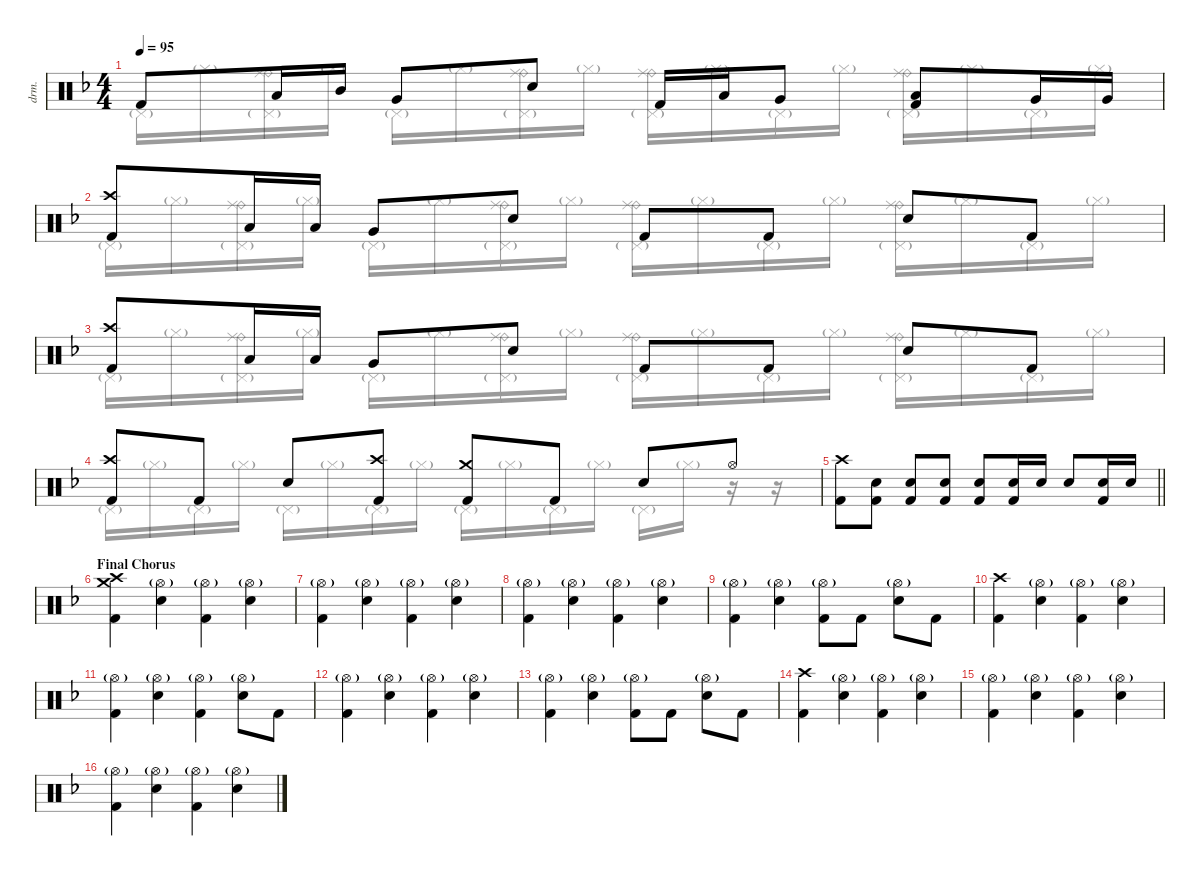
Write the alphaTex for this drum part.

\defaultSystemsLayout 4
\hideDynamics
\bracketExtendMode nobrackets
\track ("Jukka" "drm.") {instrument percussion}
\staff {score}
\articulation defaults
\voice
\ts (4 4)
\tempo 95
\clef neutral
\ks f "Kick (hit) 2"{acc forcenatural}.8{dy f} "Low Tom (hit)"{acc forcenatural}.16{dy mf} "Mid Tom (hit)"{acc forcenatural}.16 "Very Low Tom (hit)"{acc forcenatural}.8 "Snare (hit) 2"{acc forcenatural}.8{dy f} "Kick (hit) 2"{acc forcenatural}.16 "Low Tom (hit)"{acc forcenatural}.16 "Very Low Tom (hit)"{acc forcenatural}.8
("Low Tom (hit)"{acc forcenatural} "Kick (hit) 2"{acc forcenatural}).8 "Very Low Tom (hit)"{acc forcenatural}.16{dy mp} "Very Low Tom (hit)"{acc forcenatural}.16 |
("Crash high (hit)"{acc forcenatural} "Kick (hit) 2"{acc forcenatural}).8{dy mf} "Low Tom (hit)"{acc forcenatural}.16 "Low Tom (hit)"{acc forcenatural}.16 "Very Low Tom (hit)"{acc forcenatural}.8 "Snare (hit) 2"{acc forcenatural}.8{dy f} "Kick (hit) 2"{acc forcenatural}.8 "Kick (hit) 2"{acc forcenatural}.8 "Snare (hit) 2"{acc forcenatural}.8 "Kick (hit) 2"{acc forcenatural}.8 |
("Crash high (hit)"{acc forcenatural} "Kick (hit) 2"{acc forcenatural}).8{dy mf} "Low Tom (hit)"{acc forcenatural}.16 "Low Tom (hit)"{acc forcenatural}.16 "Very Low Tom (hit)"{acc forcenatural}.8 "Snare (hit) 2"{acc forcenatural}.8{dy f} "Kick (hit) 2"{acc forcenatural}.8 "Kick (hit) 2"{acc forcenatural}.8 "Snare (hit) 2"{acc forcenatural}.8 "Kick (hit) 2"{acc forcenatural}.8 |
("Crash high (hit)"{acc forcenatural} "Kick (hit) 2"{acc forcenatural}).8{dy mf} "Kick (hit) 2"{acc forcenatural}.8{dy f} "Snare (hit) 2"{acc forcenatural}.8 ("Crash high (hit)"{acc forcenatural} "Kick (hit) 2"{acc forcenatural}).8 ("Crash medium (hit)"{acc forcenatural} "Kick (hit) 2"{acc forcenatural}).8 "Kick (hit) 2"{acc forcenatural}.8 "Snare (hit) 2"{acc forcenatural}.8 "Hi-Hat (open)"{acc forcenatural}.8 |
\barLineRight lightlight
("Crash high (hit)"{acc forcenatural} "Kick (hit) 2"{acc forcenatural}).8 ("Snare (hit) 2"{acc forcenatural} "Kick (hit) 2"{acc forcenatural}).8{dy mp} ("Snare (hit) 2"{acc forcenatural} "Kick (hit) 2"{acc forcenatural}).8{dy mf} ("Snare (hit) 2"{acc forcenatural} "Kick (hit) 2"{acc forcenatural}).8{dy f} ("Snare (hit) 2"{acc forcenatural} "Kick (hit) 2"{acc forcenatural}).8 ("Snare (hit) 2"{acc forcenatural} "Kick (hit) 2"{acc forcenatural}).16 "Snare (hit) 2"{acc forcenatural}.16 "Snare (hit) 2"{acc forcenatural}.8 ("Snare (hit) 2"{acc forcenatural} "Kick (hit) 2"{acc forcenatural}).16 "Snare (hit) 2"{acc forcenatural}.16 |
\section ("" "Final Chorus")
("Crash high (hit)"{acc forcenatural} "Crash medium (hit)"{acc forcenatural} "Kick (hit) 2"{acc forcenatural}).4 ("Hi-Hat (open)"{g acc forcenatural} "Snare (hit) 2"{acc forcenatural}).4 ("Hi-Hat (open)"{g acc forcenatural} "Kick (hit) 2"{acc forcenatural}).4 ("Hi-Hat (open)"{g acc forcenatural} "Snare (hit) 2"{acc forcenatural}).4 |
("Hi-Hat (open)"{g acc forcenatural} "Kick (hit) 2"{acc forcenatural}).4 ("Hi-Hat (open)"{g acc forcenatural} "Snare (hit) 2"{acc forcenatural}).4 ("Hi-Hat (open)"{g acc forcenatural} "Kick (hit) 2"{acc forcenatural}).4 ("Hi-Hat (open)"{g acc forcenatural} "Snare (hit) 2"{acc forcenatural}).4 |
("Hi-Hat (open)"{g acc forcenatural} "Kick (hit) 2"{acc forcenatural}).4 ("Hi-Hat (open)"{g acc forcenatural} "Snare (hit) 2"{acc forcenatural}).4 ("Hi-Hat (open)"{g acc forcenatural} "Kick (hit) 2"{acc forcenatural}).4 ("Hi-Hat (open)"{g acc forcenatural} "Snare (hit) 2"{acc forcenatural}).4 |
("Hi-Hat (open)"{g acc forcenatural} "Kick (hit) 2"{acc forcenatural}).4 ("Hi-Hat (open)"{g acc forcenatural} "Snare (hit) 2"{acc forcenatural}).4 ("Hi-Hat (open)"{g acc forcenatural} "Kick (hit) 2"{acc forcenatural}).8 "Kick (hit) 2"{acc forcenatural}.8{dy mf} ("Hi-Hat (open)"{g acc forcenatural} "Snare (hit) 2"{acc forcenatural}).8{dy f} "Kick (hit) 2"{acc forcenatural}.8{dy mf} |
("Crash high (hit)"{acc forcenatural} "Kick (hit) 2"{acc forcenatural}).4{dy f} ("Hi-Hat (open)"{g acc forcenatural} "Snare (hit) 2"{acc forcenatural}).4 ("Hi-Hat (open)"{g acc forcenatural} "Kick (hit) 2"{acc forcenatural}).4 ("Hi-Hat (open)"{g acc forcenatural} "Snare (hit) 2"{acc forcenatural}).4 |
("Hi-Hat (open)"{g acc forcenatural} "Kick (hit) 2"{acc forcenatural}).4 ("Hi-Hat (open)"{g acc forcenatural} "Snare (hit) 2"{acc forcenatural}).4 ("Hi-Hat (open)"{g acc forcenatural} "Kick (hit) 2"{acc forcenatural}).4 ("Hi-Hat (open)"{g acc forcenatural} "Snare (hit) 2"{acc forcenatural}).8 "Kick (hit) 2"{acc forcenatural}.8 |
("Hi-Hat (open)"{g acc forcenatural} "Kick (hit) 2"{acc forcenatural}).4 ("Hi-Hat (open)"{g acc forcenatural} "Snare (hit) 2"{acc forcenatural}).4 ("Hi-Hat (open)"{g acc forcenatural} "Kick (hit) 2"{acc forcenatural}).4 ("Hi-Hat (open)"{g acc forcenatural} "Snare (hit) 2"{acc forcenatural}).4 |
("Hi-Hat (open)"{g acc forcenatural} "Kick (hit) 2"{acc forcenatural}).4 ("Hi-Hat (open)"{g acc forcenatural} "Snare (hit) 2"{acc forcenatural}).4 ("Hi-Hat (open)"{g acc forcenatural} "Kick (hit) 2"{acc forcenatural}).8 "Kick (hit) 2"{acc forcenatural}.8{dy mf} ("Hi-Hat (open)"{g acc forcenatural} "Snare (hit) 2"{acc forcenatural}).8{dy f} "Kick (hit) 2"{acc forcenatural}.8{dy mf} |
("Crash high (hit)"{acc forcenatural} "Kick (hit) 2"{acc forcenatural}).4{dy f} ("Hi-Hat (open)"{g acc forcenatural} "Snare (hit) 2"{acc forcenatural}).4 ("Hi-Hat (open)"{g acc forcenatural} "Kick (hit) 2"{acc forcenatural}).4 ("Hi-Hat (open)"{g acc forcenatural} "Snare (hit) 2"{acc forcenatural}).4 |
("Hi-Hat (open)"{g acc forcenatural} "Kick (hit) 2"{acc forcenatural}).4 ("Hi-Hat (open)"{g acc forcenatural} "Snare (hit) 2"{acc forcenatural}).4 ("Hi-Hat (open)"{g acc forcenatural} "Kick (hit) 2"{acc forcenatural}).4 ("Hi-Hat (open)"{g acc forcenatural} "Snare (hit) 2"{acc forcenatural}).4 |
("Hi-Hat (open)"{g acc forcenatural} "Kick (hit) 2"{acc forcenatural}).4 ("Hi-Hat (open)"{g acc forcenatural} "Snare (hit) 2"{acc forcenatural}).4 ("Hi-Hat (open)"{g acc forcenatural} "Kick (hit) 2"{acc forcenatural}).4 ("Hi-Hat (open)"{g acc forcenatural} "Snare (hit) 2"{acc forcenatural}).4
\voice
\clef neutral
\ottava regular
\simile none
\ks f "Pedal Hi-Hat (hit)"{g acc forcenatural}.16{dy fff} "Hi-Hat (closed)"{g acc forcenatural}.16
("Pedal Hi-Hat (hit)"{g acc forcenatural} "Ride (bell)"{acc forcenatural} "Ride (middle)"{acc forcenatural}).16{dy mp} "Hi-Hat (closed)"{g acc forcenatural}.16{dy fff} "Pedal Hi-Hat (hit)"{g acc forcenatural}.16 "Hi-Hat (closed)"{g acc forcenatural}.16 ("Pedal Hi-Hat (hit)"{g acc forcenatural} "Ride (bell)"{acc forcenatural} "Ride (middle)"{acc forcenatural}).16{dy mp} "Hi-Hat (closed)"{g acc forcenatural}.16{dy fff} ("Pedal Hi-Hat (hit)"{g acc forcenatural} "Ride (bell)"{acc forcenatural} "Ride (middle)"{acc forcenatural}).16{dy mp} "Hi-Hat (closed)"{g acc forcenatural}.16{dy fff} "Pedal Hi-Hat (hit)"{g acc forcenatural}.16 "Hi-Hat (closed)"{g acc forcenatural}.16 ("Pedal Hi-Hat (hit)"{g acc forcenatural} "Ride (bell)"{acc forcenatural} "Ride (middle)"{acc forcenatural}).16{dy mp} "Hi-Hat (closed)"{g acc forcenatural}.16{dy fff} "Pedal Hi-Hat (hit)"{g acc forcenatural}.16 "Hi-Hat (closed)"{g acc forcenatural}.16 |
"Pedal Hi-Hat (hit)"{g acc forcenatural}.16 "Hi-Hat (closed)"{g acc forcenatural}.16 ("Pedal Hi-Hat (hit)"{g acc forcenatural} "Ride (bell)"{acc forcenatural} "Ride (middle)"{acc forcenatural}).16{dy mp} "Hi-Hat (closed)"{g acc forcenatural}.16{dy fff} "Pedal Hi-Hat (hit)"{g acc forcenatural}.16 "Hi-Hat (closed)"{g acc forcenatural}.16 ("Pedal Hi-Hat (hit)"{g acc forcenatural} "Ride (bell)"{acc forcenatural} "Ride (middle)"{acc forcenatural}).16{dy mp} "Hi-Hat (closed)"{g acc forcenatural}.16{dy fff} ("Pedal Hi-Hat (hit)"{g acc forcenatural} "Ride (bell)"{acc forcenatural} "Ride (middle)"{acc forcenatural}).16{dy mp} "Hi-Hat (closed)"{g acc forcenatural}.16{dy fff} "Pedal Hi-Hat (hit)"{g acc forcenatural}.16 "Hi-Hat (closed)"{g acc forcenatural}.16 ("Pedal Hi-Hat (hit)"{g acc forcenatural} "Ride (bell)"{acc forcenatural} "Ride (middle)"{acc forcenatural}).16{dy mp} "Hi-Hat (closed)"{g acc forcenatural}.16{dy fff} "Pedal Hi-Hat (hit)"{g acc forcenatural}.16 "Hi-Hat (closed)"{g acc forcenatural}.16 |
"Pedal Hi-Hat (hit)"{g acc forcenatural}.16 "Hi-Hat (closed)"{g acc forcenatural}.16 ("Pedal Hi-Hat (hit)"{g acc forcenatural} "Ride (bell)"{acc forcenatural} "Ride (middle)"{acc forcenatural}).16{dy mp} "Hi-Hat (closed)"{g acc forcenatural}.16{dy fff} "Pedal Hi-Hat (hit)"{g acc forcenatural}.16 "Hi-Hat (closed)"{g acc forcenatural}.16 ("Pedal Hi-Hat (hit)"{g acc forcenatural} "Ride (bell)"{acc forcenatural} "Ride (middle)"{acc forcenatural}).16{dy mp} "Hi-Hat (closed)"{g acc forcenatural}.16{dy fff} ("Pedal Hi-Hat (hit)"{g acc forcenatural} "Ride (bell)"{acc forcenatural} "Ride (middle)"{acc forcenatural}).16{dy mp} "Hi-Hat (closed)"{g acc forcenatural}.16{dy fff} "Pedal Hi-Hat (hit)"{g acc forcenatural}.16 "Hi-Hat (closed)"{g acc forcenatural}.16 ("Pedal Hi-Hat (hit)"{g acc forcenatural} "Ride (bell)"{acc forcenatural} "Ride (middle)"{acc forcenatural}).16{dy mp} "Hi-Hat (closed)"{g acc forcenatural}.16{dy fff} "Pedal Hi-Hat (hit)"{g acc forcenatural}.16 "Hi-Hat (closed)"{g acc forcenatural}.16 |
"Pedal Hi-Hat (hit)"{g acc forcenatural}.16 "Hi-Hat (closed)"{g acc forcenatural}.16 "Pedal Hi-Hat (hit)"{g acc forcenatural}.16 "Hi-Hat (closed)"{g acc forcenatural}.16 "Pedal Hi-Hat (hit)"{g acc forcenatural}.16 "Hi-Hat (closed)"{g acc forcenatural}.16 "Pedal Hi-Hat (hit)"{g acc forcenatural}.16 "Hi-Hat (closed)"{g acc forcenatural}.16 "Pedal Hi-Hat (hit)"{g acc forcenatural}.16 "Hi-Hat (closed)"{g acc forcenatural}.16 "Pedal Hi-Hat (hit)"{g acc forcenatural}.16 "Hi-Hat (closed)"{g acc forcenatural}.16 "Pedal Hi-Hat (hit)"{g acc forcenatural}.16 "Hi-Hat (closed)"{g acc forcenatural}.16 r.16 r.16 |
\barLineRight lightlight
|
|
|
|
|
|
|
|
|
|
|
